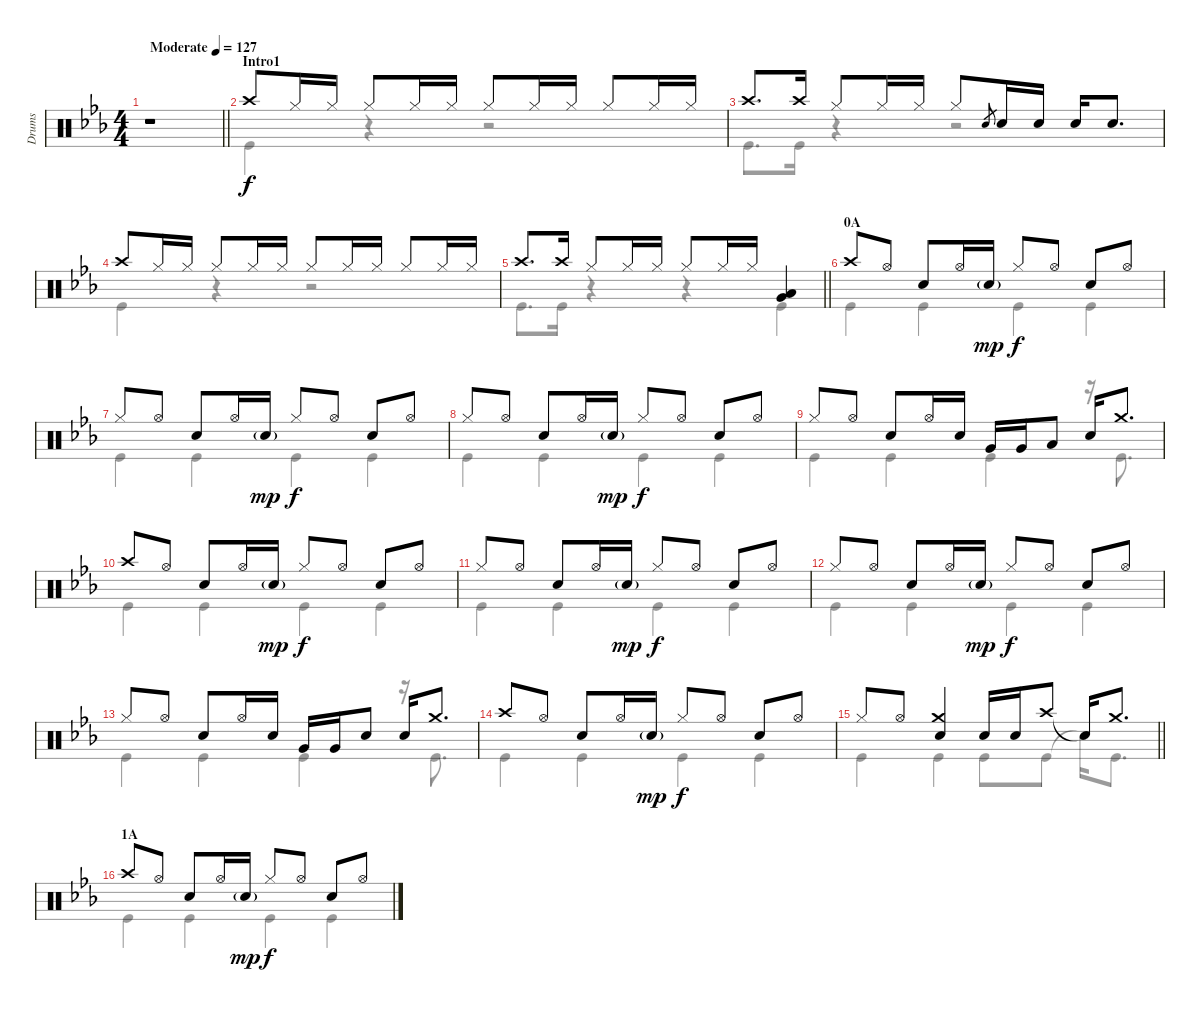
\track ("Drums" "Drums") {instrument percussion}
\staff {score}
\articulation defaults
\voice
\ts (4 4)
\tempo (127 "Moderate")
\clef neutral
\barLineRight lightlight
\ks eb
r.1{dy f} |
\section ("" "Intro1")
"Crash high (hit)".8 "Hi-Hat (closed)".16 "Hi-Hat (closed)".16 "Hi-Hat (closed)".8 "Hi-Hat (closed)".16 "Hi-Hat (closed)".16 "Hi-Hat (closed)".8 "Hi-Hat (closed)".16 "Hi-Hat (closed)".16 "Hi-Hat (closed)".8 "Hi-Hat (closed)".16 "Hi-Hat (closed)".16 |
"Crash high (hit)".8{d} "Crash high (hit)".16 "Hi-Hat (closed)".8 "Hi-Hat (closed)".16 "Hi-Hat (closed)".16 "Hi-Hat (closed)".8 "Snare (hit) 2".8{gr} "Snare (hit) 2".16 "Snare (hit) 2".16 "Snare (hit) 2".16 "Snare (hit) 2".8{d} |
"Crash high (hit)".8 "Hi-Hat (closed)".16 "Hi-Hat (closed)".16 "Hi-Hat (closed)".8 "Hi-Hat (closed)".16 "Hi-Hat (closed)".16 "Hi-Hat (closed)".8 "Hi-Hat (closed)".16 "Hi-Hat (closed)".16 "Hi-Hat (closed)".8 "Hi-Hat (closed)".16 "Hi-Hat (closed)".16 |
\barLineRight lightlight "Crash high (hit)".8{d} "Crash high (hit)".16 "Hi-Hat (closed)".8 "Hi-Hat (closed)".16 "Hi-Hat (closed)".16 "Hi-Hat (closed)".8 "Hi-Hat (closed)".16 "Hi-Hat (closed)".16
("Low Tom (hit)" "Very Low Tom (hit)").4 |
\section ("" "0A")
"Crash high (hit)".8 "Hi-Hat (open)".8 "Snare (hit) 2".8 "Hi-Hat (open)".16 "Snare (hit) 2"{g}.16{dy mp} "Hi-Hat (closed)".8{dy f} "Hi-Hat (open)".8 "Snare (hit) 2".8 "Hi-Hat (open)".8 |
"Hi-Hat (closed)".8 "Hi-Hat (open)".8 "Snare (hit) 2".8 "Hi-Hat (open)".16 "Snare (hit) 2"{g}.16{dy mp} "Hi-Hat (closed)".8{dy f} "Hi-Hat (open)".8 "Snare (hit) 2".8 "Hi-Hat (open)".8 |
"Hi-Hat (closed)".8 "Hi-Hat (open)".8 "Snare (hit) 2".8 "Hi-Hat (open)".16 "Snare (hit) 2"{g}.16{dy mp} "Hi-Hat (closed)".8{dy f} "Hi-Hat (open)".8 "Snare (hit) 2".8 "Hi-Hat (open)".8 |
"Hi-Hat (closed)".8 "Hi-Hat (open)".8 "Snare (hit) 2".8 "Hi-Hat (open)".16 "Snare (hit) 2".16 "Very Low Tom (hit)".16 "Very Low Tom (hit)".16 "Low Tom (hit)".8 "Snare (hit) 2".16 "Crash medium (hit)".8{d} |
"Crash high (hit)".8 "Hi-Hat (open)".8 "Snare (hit) 2".8 "Hi-Hat (open)".16 "Snare (hit) 2"{g}.16{dy mp} "Hi-Hat (closed)".8{dy f} "Hi-Hat (open)".8 "Snare (hit) 2".8 "Hi-Hat (open)".8 |
"Hi-Hat (closed)".8 "Hi-Hat (open)".8 "Snare (hit) 2".8 "Hi-Hat (open)".16 "Snare (hit) 2"{g}.16{dy mp} "Hi-Hat (closed)".8{dy f} "Hi-Hat (open)".8 "Snare (hit) 2".8 "Hi-Hat (open)".8 |
"Hi-Hat (closed)".8 "Hi-Hat (open)".8 "Snare (hit) 2".8 "Hi-Hat (open)".16 "Snare (hit) 2"{g}.16{dy mp} "Hi-Hat (closed)".8{dy f} "Hi-Hat (open)".8 "Snare (hit) 2".8 "Hi-Hat (open)".8 |
"Hi-Hat (closed)".8 "Hi-Hat (open)".8 "Snare (hit) 2".8 "Hi-Hat (open)".16 "Snare (hit) 2".16 "Very Low Tom (hit)".16 "Very Low Tom (hit)".16 "Snare (hit) 2".8 "Snare (hit) 2".16 "Crash medium (hit)".8{d} |
"Crash high (hit)".8 "Hi-Hat (open)".8 "Snare (hit) 2".8 "Hi-Hat (open)".16 "Snare (hit) 2"{g}.16{dy mp} "Hi-Hat (closed)".8{dy f} "Hi-Hat (open)".8 "Snare (hit) 2".8 "Hi-Hat (open)".8 |
\barLineRight lightlight "Hi-Hat (closed)".8 "Hi-Hat (open)".8
("Crash medium (hit)" "Snare (hit) 2").4 "Snare (hit) 2".16 "Snare (hit) 2".16 "Crash high (hit)".8 "Snare (hit)"{t}.16 "Crash medium (hit)".8{d} |
\section ("" "1A")
"Crash high (hit)".8 "Hi-Hat (open)".8 "Snare (hit) 2".8 "Hi-Hat (open)".16 "Snare (hit) 2"{g}.16{dy mp} "Hi-Hat (closed)".8{dy f} "Hi-Hat (open)".8 "Snare (hit) 2".8 "Hi-Hat (open)".8
\voice
\clef neutral
\ottava regular
\simile none
\barLineRight lightlight
\ks eb
r.1{dy f} |
"Kick (hit)".4 r.4 r.2 |
"Kick (hit)".8{d} "Kick (hit)".16 r.4 r.2 |
"Kick (hit)".4 r.4 r.2 |
\barLineRight lightlight "Kick (hit)".8{d} "Kick (hit)".16
r.4 r.4 "Kick (hit)".4 |
"Kick (hit)".4 "Kick (hit)".4 "Kick (hit)".4 "Kick (hit)".4 |
"Kick (hit)".4 "Kick (hit)".4 "Kick (hit)".4 "Kick (hit)".4 |
"Kick (hit)".4 "Kick (hit)".4 "Kick (hit)".4 "Kick (hit)".4 |
"Kick (hit)".4 "Kick (hit)".4 "Kick (hit)".4 r.16 "Kick (hit)".8{d} |
"Kick (hit)".4 "Kick (hit)".4 "Kick (hit)".4 "Kick (hit)".4 |
"Kick (hit)".4 "Kick (hit)".4 "Kick (hit)".4 "Kick (hit)".4 |
"Kick (hit)".4 "Kick (hit)".4 "Kick (hit)".4 "Kick (hit)".4 |
"Kick (hit)".4 "Kick (hit)".4 "Kick (hit)".4 r.16 "Kick (hit)".8{d} |
"Kick (hit)".4 "Kick (hit)".4 "Kick (hit)".4 "Kick (hit)".4 |
\barLineRight lightlight "Kick (hit)".4 "Kick (hit)".4 "Kick (hit)".8 "Kick (hit)".8 "Snare (hit)"{t}.16 "Kick (hit)".8{d}
|
"Kick (hit)".4 "Kick (hit)".4 "Kick (hit)".4 "Kick (hit)".4
